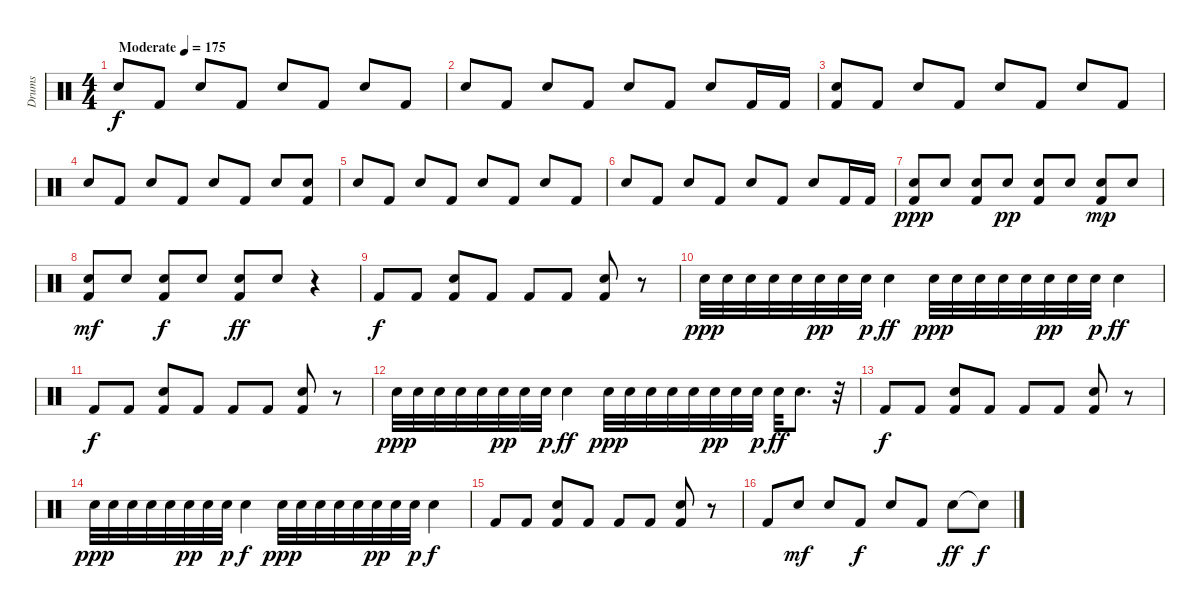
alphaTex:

\track ("Drums" "Drums") {instrument percussion}
\staff {score}
\articulation defaults
\ts (4 4)
\tempo (175 "Moderate")
\clef neutral
\ks c "Snare (hit) 2".8{dy f} "Kick (hit) 2".8 "Snare (hit) 2".8 "Kick (hit) 2".8 "Snare (hit) 2".8 "Kick (hit) 2".8 "Snare (hit) 2".8 "Kick (hit) 2".8
|
"Snare (hit) 2".8 "Kick (hit) 2".8 "Snare (hit) 2".8 "Kick (hit) 2".8 "Snare (hit) 2".8 "Kick (hit) 2".8 "Snare (hit) 2".8 "Kick (hit) 2".16 "Kick (hit) 2".16 |
("Snare (hit) 2" "Kick (hit) 2").8 "Kick (hit) 2".8 "Snare (hit) 2".8 "Kick (hit) 2".8 "Snare (hit) 2".8 "Kick (hit) 2".8 "Snare (hit) 2".8 "Kick (hit) 2".8 |
"Snare (hit) 2".8 "Kick (hit) 2".8 "Snare (hit) 2".8 "Kick (hit) 2".8 "Snare (hit) 2".8 "Kick (hit) 2".8 "Snare (hit) 2".8 ("Snare (hit) 2" "Kick (hit) 2").8 |
"Snare (hit) 2".8 "Kick (hit) 2".8 "Snare (hit) 2".8 "Kick (hit) 2".8 "Snare (hit) 2".8 "Kick (hit) 2".8 "Snare (hit) 2".8 "Kick (hit) 2".8 |
"Snare (hit) 2".8 "Kick (hit) 2".8 "Snare (hit) 2".8 "Kick (hit) 2".8 "Snare (hit) 2".8 "Kick (hit) 2".8 "Snare (hit) 2".8 "Kick (hit) 2".16 "Kick (hit) 2".16 |
("Snare (hit) 2" "Kick (hit) 2").8{dy ppp} "Snare (hit) 2".8 ("Snare (hit) 2" "Kick (hit) 2").8 "Snare (hit) 2".8{dy pp} ("Snare (hit) 2" "Kick (hit) 2").8 "Snare (hit) 2".8 ("Snare (hit) 2" "Kick (hit) 2").8{dy mp} "Snare (hit) 2".8 |
("Snare (hit) 2" "Kick (hit) 2").8{dy mf} "Snare (hit) 2".8 ("Snare (hit) 2" "Kick (hit) 2").8{dy f} "Snare (hit) 2".8 ("Snare (hit) 2" "Kick (hit) 2").8{dy ff} "Snare (hit) 2".8 r.4 |
"Kick (hit) 2".8{dy f volume 5} "Kick (hit) 2".8 ("Snare (hit) 2" "Kick (hit) 2").8 "Kick (hit) 2".8 "Kick (hit) 2".8 "Kick (hit) 2".8 ("Snare (hit) 2" "Kick (hit) 2").8 r.8 |
"Snare (hit) 2".32{dy ppp} "Snare (hit) 2".32 "Snare (hit) 2".32 "Snare (hit) 2".32 "Snare (hit) 2".32 "Snare (hit) 2".32{dy pp} "Snare (hit) 2".32 "Snare (hit) 2".32{dy p} "Snare (hit) 2".4{dy ff} "Snare (hit) 2".32{dy ppp} "Snare (hit) 2".32 "Snare (hit) 2".32 "Snare (hit) 2".32 "Snare (hit) 2".32 "Snare (hit) 2".32{dy pp} "Snare (hit) 2".32 "Snare (hit) 2".32{dy p} "Snare (hit) 2".4{dy ff} |
"Kick (hit) 2".8{dy f} "Kick (hit) 2".8 ("Snare (hit) 2" "Kick (hit) 2").8 "Kick (hit) 2".8 "Kick (hit) 2".8 "Kick (hit) 2".8 ("Snare (hit) 2" "Kick (hit) 2").8 r.8 |
"Snare (hit) 2".32{dy ppp} "Snare (hit) 2".32 "Snare (hit) 2".32 "Snare (hit) 2".32 "Snare (hit) 2".32 "Snare (hit) 2".32{dy pp} "Snare (hit) 2".32 "Snare (hit) 2".32{dy p} "Snare (hit) 2".4{dy ff} "Snare (hit) 2".32{dy ppp} "Snare (hit) 2".32 "Snare (hit) 2".32 "Snare (hit) 2".32 "Snare (hit) 2".32 "Snare (hit) 2".32{dy pp} "Snare (hit) 2".32 "Snare (hit) 2".32{dy p} "Snare (hit) 2".32{dy ff} "Snare (hit) 2".8{d} r.32 |
"Kick (hit) 2".8{dy f} "Kick (hit) 2".8 ("Snare (hit) 2" "Kick (hit) 2").8 "Kick (hit) 2".8 "Kick (hit) 2".8 "Kick (hit) 2".8 ("Snare (hit) 2" "Kick (hit) 2").8 r.8 |
"Snare (hit) 2".32{dy ppp} "Snare (hit) 2".32 "Snare (hit) 2".32 "Snare (hit) 2".32 "Snare (hit) 2".32 "Snare (hit) 2".32{dy pp} "Snare (hit) 2".32 "Snare (hit) 2".32{dy p} "Snare (hit) 2".4{dy f} "Snare (hit) 2".32{dy ppp} "Snare (hit) 2".32 "Snare (hit) 2".32 "Snare (hit) 2".32 "Snare (hit) 2".32 "Snare (hit) 2".32{dy pp} "Snare (hit) 2".32 "Snare (hit) 2".32{dy p} "Snare (hit) 2".4{dy f} |
"Kick (hit) 2".8 "Kick (hit) 2".8 ("Snare (hit) 2" "Kick (hit) 2").8 "Kick (hit) 2".8 "Kick (hit) 2".8 "Kick (hit) 2".8 ("Snare (hit) 2" "Kick (hit) 2").8 r.8 |
"Kick (hit) 2".8 "Snare (hit) 2".8{dy mf} "Snare (hit) 2".8 "Kick (hit) 2".8{dy f} "Snare (hit) 2".8 "Kick (hit) 2".8 "Snare (hit) 2".8{dy ff} "Snare (hit) 2"{t}.8{dy f}
